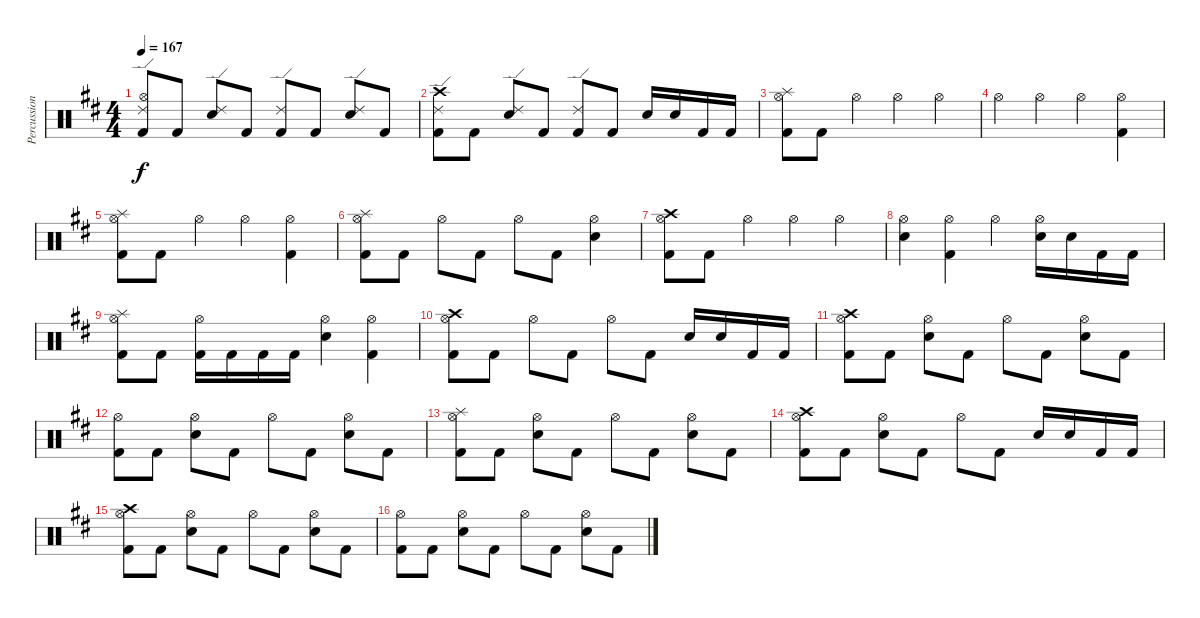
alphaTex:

\track ("Percussion" "Percussion") {instrument percussion}
\staff {score}
\articulation defaults
\ts (4 4)
\tempo 167
\clef neutral
\ks d
("Ride (edge) 2" "Hi-Hat (open)" "Kick (hit) 2").8{dy f} "Kick (hit) 2".8 ("Ride (edge) 2" "Electric Snare (hit)").8 "Kick (hit) 2".8 ("Ride (edge) 2" "Kick (hit) 2").8 "Kick (hit) 2".8 ("Ride (edge) 2" "Electric Snare (hit)").8 "Kick (hit) 2".8 |
("Ride (edge) 2" "Crash high (hit)" "Kick (hit) 2").8 "Kick (hit) 2".8 ("Ride (edge) 2" "Electric Snare (hit)").8 "Kick (hit) 2".8 ("Ride (edge) 2" "Kick (hit) 2").8 "Kick (hit) 2".8 "Electric Snare (hit)".16 "Electric Snare (hit)".16 "Kick (hit) 2".16 "Kick (hit) 2".16 |
("Hi-Hat (open)" "Splash (hit)" "Kick (hit) 2").8 "Kick (hit) 2".8 "Hi-Hat (open)".4 "Hi-Hat (open)".4 "Hi-Hat (open)".4 |
"Hi-Hat (open)".4 "Hi-Hat (open)".4 "Hi-Hat (open)".4 ("Hi-Hat (open)" "Kick (hit) 2").4 |
("Hi-Hat (open)" "Splash (hit)" "Kick (hit) 2").8 "Kick (hit) 2".8 "Hi-Hat (open)".4 "Hi-Hat (open)".4 ("Hi-Hat (open)" "Kick (hit) 2").4 |
("Hi-Hat (open)" "Splash (hit)" "Kick (hit) 2").8 "Kick (hit) 2".8 "Hi-Hat (open)".8 "Kick (hit) 2".8 "Hi-Hat (open)".8 "Kick (hit) 2".8 ("Hi-Hat (open)" "Electric Snare (hit)").4 |
("Hi-Hat (open)" "Crash high (hit)" "Kick (hit) 2").8 "Kick (hit) 2".8 "Hi-Hat (open)".4 "Hi-Hat (open)".4 "Hi-Hat (open)".4 |
("Hi-Hat (open)" "Electric Snare (hit)").4 ("Hi-Hat (open)" "Kick (hit) 2").4 "Hi-Hat (open)".4 ("Hi-Hat (open)" "Electric Snare (hit)").16 "Electric Snare (hit)".16 "Kick (hit) 2".16 "Kick (hit) 2".16 |
("Hi-Hat (open)" "Splash (hit)" "Kick (hit) 2").8 "Kick (hit) 2".8 ("Hi-Hat (open)" "Kick (hit) 2").16 "Kick (hit) 2".16 "Kick (hit) 2".16 "Kick (hit) 2".16 ("Hi-Hat (open)" "Electric Snare (hit)").4 ("Hi-Hat (open)" "Kick (hit) 2").4 |
("Hi-Hat (open)" "Crash high (hit)" "Kick (hit) 2").8 "Kick (hit) 2".8 "Hi-Hat (open)".8 "Kick (hit) 2".8 "Hi-Hat (open)".8 "Kick (hit) 2".8 "Electric Snare (hit)".16 "Electric Snare (hit)".16 "Kick (hit) 2".16 "Kick (hit) 2".16 |
("Hi-Hat (open)" "Crash high (hit)" "Kick (hit) 2").8 "Kick (hit) 2".8 ("Hi-Hat (open)" "Electric Snare (hit)").8 "Kick (hit) 2".8 "Hi-Hat (open)".8 "Kick (hit) 2".8 ("Hi-Hat (open)" "Electric Snare (hit)").8 "Kick (hit) 2".8 |
("Hi-Hat (open)" "Kick (hit) 2").8 "Kick (hit) 2".8 ("Hi-Hat (open)" "Electric Snare (hit)").8 "Kick (hit) 2".8 "Hi-Hat (open)".8 "Kick (hit) 2".8 ("Hi-Hat (open)" "Electric Snare (hit)").8 "Kick (hit) 2".8 |
("Hi-Hat (open)" "Splash (hit)" "Kick (hit) 2").8 "Kick (hit) 2".8 ("Hi-Hat (open)" "Electric Snare (hit)").8 "Kick (hit) 2".8 "Hi-Hat (open)".8 "Kick (hit) 2".8 ("Hi-Hat (open)" "Electric Snare (hit)").8 "Kick (hit) 2".8 |
("Hi-Hat (open)" "Crash high (hit)" "Kick (hit) 2").8 "Kick (hit) 2".8 ("Hi-Hat (open)" "Electric Snare (hit)").8 "Kick (hit) 2".8 "Hi-Hat (open)".8 "Kick (hit) 2".8 "Electric Snare (hit)".16 "Electric Snare (hit)".16 "Kick (hit) 2".16 "Kick (hit) 2".16 |
("Hi-Hat (open)" "Crash high (hit)" "Kick (hit) 2").8 "Kick (hit) 2".8 ("Hi-Hat (open)" "Electric Snare (hit)").8 "Kick (hit) 2".8 "Hi-Hat (open)".8 "Kick (hit) 2".8 ("Hi-Hat (open)" "Electric Snare (hit)").8 "Kick (hit) 2".8 |
("Hi-Hat (open)" "Kick (hit) 2").8 "Kick (hit) 2".8 ("Hi-Hat (open)" "Electric Snare (hit)").8 "Kick (hit) 2".8 "Hi-Hat (open)".8 "Kick (hit) 2".8 ("Hi-Hat (open)" "Electric Snare (hit)").8 "Kick (hit) 2".8
